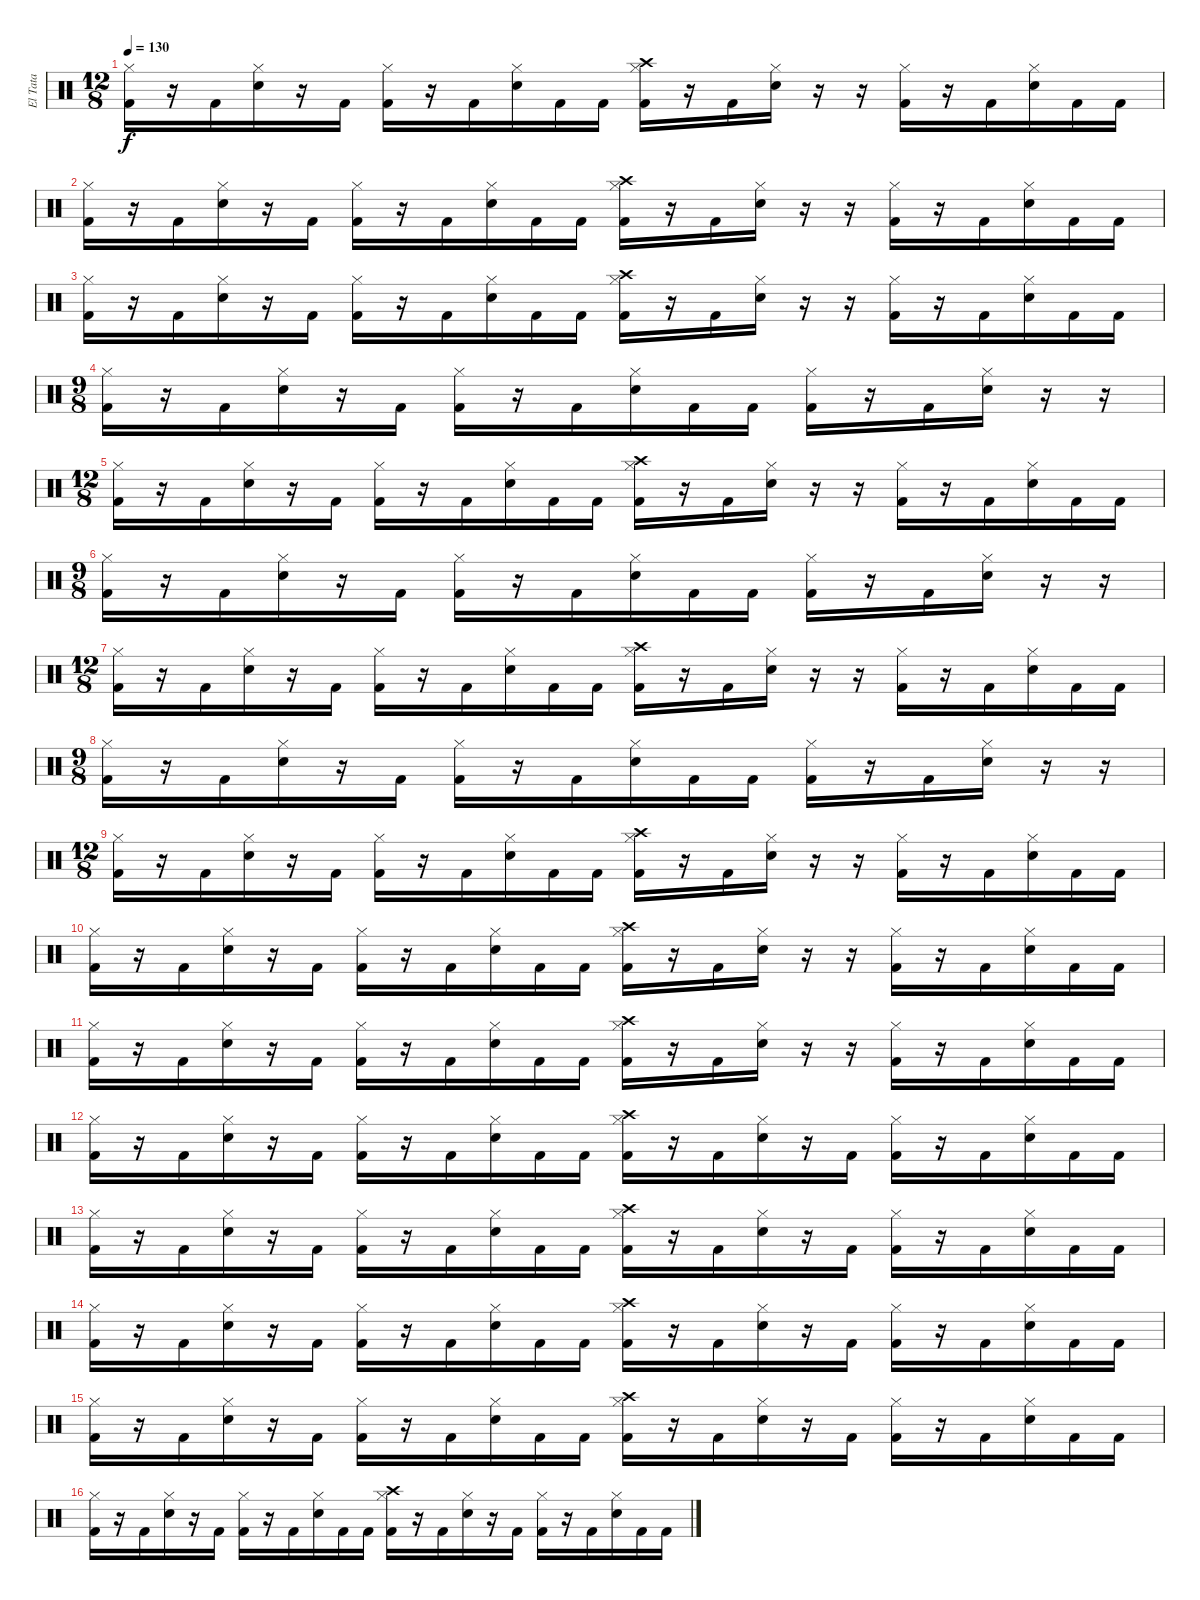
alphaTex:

\track ("El Tata" "El Tata") {instrument percussion}
\staff {score}
\articulation defaults
\ts (12 8)
\tempo 130
\clef neutral
\ks c
("Kick (hit) 2" "Hi-Hat (closed)").16{dy f} r.16 "Kick (hit) 2".16 ("Hi-Hat (closed)" "Electric Snare (hit)").16 r.16 "Kick (hit) 2".16 ("Kick (hit) 2" "Hi-Hat (closed)").16 r.16 "Kick (hit) 2".16 ("Hi-Hat (closed)" "Electric Snare (hit)").16 "Kick (hit) 2".16 "Kick (hit) 2".16 ("Kick (hit) 2" "Hi-Hat (closed)" "Crash high (hit)").16 r.16 "Kick (hit) 2".16 ("Hi-Hat (closed)" "Electric Snare (hit)").16 r.16 r.16 ("Kick (hit) 2" "Hi-Hat (closed)").16 r.16 "Kick (hit) 2".16 ("Hi-Hat (closed)" "Electric Snare (hit)").16 "Kick (hit) 2".16 "Kick (hit) 2".16 |
("Kick (hit) 2" "Hi-Hat (closed)").16 r.16 "Kick (hit) 2".16 ("Hi-Hat (closed)" "Electric Snare (hit)").16 r.16 "Kick (hit) 2".16 ("Kick (hit) 2" "Hi-Hat (closed)").16 r.16 "Kick (hit) 2".16 ("Hi-Hat (closed)" "Electric Snare (hit)").16 "Kick (hit) 2".16 "Kick (hit) 2".16 ("Kick (hit) 2" "Hi-Hat (closed)" "Crash high (hit)").16 r.16 "Kick (hit) 2".16 ("Hi-Hat (closed)" "Electric Snare (hit)").16 r.16 r.16 ("Kick (hit) 2" "Hi-Hat (closed)").16 r.16 "Kick (hit) 2".16 ("Hi-Hat (closed)" "Electric Snare (hit)").16 "Kick (hit) 2".16 "Kick (hit) 2".16 |
("Kick (hit) 2" "Hi-Hat (closed)").16 r.16 "Kick (hit) 2".16 ("Hi-Hat (closed)" "Electric Snare (hit)").16 r.16 "Kick (hit) 2".16 ("Kick (hit) 2" "Hi-Hat (closed)").16 r.16 "Kick (hit) 2".16 ("Hi-Hat (closed)" "Electric Snare (hit)").16 "Kick (hit) 2".16 "Kick (hit) 2".16 ("Kick (hit) 2" "Hi-Hat (closed)" "Crash high (hit)").16 r.16 "Kick (hit) 2".16 ("Hi-Hat (closed)" "Electric Snare (hit)").16 r.16 r.16 ("Kick (hit) 2" "Hi-Hat (closed)").16 r.16 "Kick (hit) 2".16 ("Hi-Hat (closed)" "Electric Snare (hit)").16 "Kick (hit) 2".16 "Kick (hit) 2".16 |
\ts (9 8)
("Hi-Hat (closed)" "Kick (hit) 2").16 r.16 "Kick (hit) 2".16 ("Hi-Hat (closed)" "Electric Snare (hit)").16 r.16 "Kick (hit) 2".16 ("Hi-Hat (closed)" "Kick (hit) 2").16 r.16 "Kick (hit) 2".16 ("Hi-Hat (closed)" "Electric Snare (hit)").16 "Kick (hit) 2".16 "Kick (hit) 2".16 ("Hi-Hat (closed)" "Kick (hit) 2").16 r.16 "Kick (hit) 2".16 ("Hi-Hat (closed)" "Electric Snare (hit)").16 r.16 r.16 |
\ts (12 8)
("Kick (hit) 2" "Hi-Hat (closed)").16 r.16 "Kick (hit) 2".16 ("Hi-Hat (closed)" "Electric Snare (hit)").16 r.16 "Kick (hit) 2".16 ("Kick (hit) 2" "Hi-Hat (closed)").16 r.16 "Kick (hit) 2".16 ("Hi-Hat (closed)" "Electric Snare (hit)").16 "Kick (hit) 2".16 "Kick (hit) 2".16 ("Kick (hit) 2" "Hi-Hat (closed)" "Crash high (hit)").16 r.16 "Kick (hit) 2".16 ("Hi-Hat (closed)" "Electric Snare (hit)").16 r.16 r.16 ("Kick (hit) 2" "Hi-Hat (closed)").16 r.16 "Kick (hit) 2".16 ("Hi-Hat (closed)" "Electric Snare (hit)").16 "Kick (hit) 2".16 "Kick (hit) 2".16 |
\ts (9 8)
("Hi-Hat (closed)" "Kick (hit) 2").16 r.16 "Kick (hit) 2".16 ("Hi-Hat (closed)" "Electric Snare (hit)").16 r.16 "Kick (hit) 2".16 ("Hi-Hat (closed)" "Kick (hit) 2").16 r.16 "Kick (hit) 2".16 ("Hi-Hat (closed)" "Electric Snare (hit)").16 "Kick (hit) 2".16 "Kick (hit) 2".16 ("Hi-Hat (closed)" "Kick (hit) 2").16 r.16 "Kick (hit) 2".16 ("Hi-Hat (closed)" "Electric Snare (hit)").16 r.16 r.16 |
\ts (12 8)
("Kick (hit) 2" "Hi-Hat (closed)").16 r.16 "Kick (hit) 2".16 ("Hi-Hat (closed)" "Electric Snare (hit)").16 r.16 "Kick (hit) 2".16 ("Kick (hit) 2" "Hi-Hat (closed)").16 r.16 "Kick (hit) 2".16 ("Hi-Hat (closed)" "Electric Snare (hit)").16 "Kick (hit) 2".16 "Kick (hit) 2".16 ("Kick (hit) 2" "Hi-Hat (closed)" "Crash high (hit)").16 r.16 "Kick (hit) 2".16 ("Hi-Hat (closed)" "Electric Snare (hit)").16 r.16 r.16 ("Kick (hit) 2" "Hi-Hat (closed)").16 r.16 "Kick (hit) 2".16 ("Hi-Hat (closed)" "Electric Snare (hit)").16 "Kick (hit) 2".16 "Kick (hit) 2".16 |
\ts (9 8)
("Hi-Hat (closed)" "Kick (hit) 2").16 r.16 "Kick (hit) 2".16 ("Hi-Hat (closed)" "Electric Snare (hit)").16 r.16 "Kick (hit) 2".16 ("Hi-Hat (closed)" "Kick (hit) 2").16 r.16 "Kick (hit) 2".16 ("Hi-Hat (closed)" "Electric Snare (hit)").16 "Kick (hit) 2".16 "Kick (hit) 2".16 ("Hi-Hat (closed)" "Kick (hit) 2").16 r.16 "Kick (hit) 2".16 ("Hi-Hat (closed)" "Electric Snare (hit)").16 r.16 r.16 |
\ts (12 8)
("Kick (hit) 2" "Hi-Hat (closed)").16 r.16 "Kick (hit) 2".16 ("Hi-Hat (closed)" "Electric Snare (hit)").16 r.16 "Kick (hit) 2".16 ("Kick (hit) 2" "Hi-Hat (closed)").16 r.16 "Kick (hit) 2".16 ("Hi-Hat (closed)" "Electric Snare (hit)").16 "Kick (hit) 2".16 "Kick (hit) 2".16 ("Kick (hit) 2" "Hi-Hat (closed)" "Crash high (hit)").16 r.16 "Kick (hit) 2".16 ("Hi-Hat (closed)" "Electric Snare (hit)").16 r.16 r.16 ("Kick (hit) 2" "Hi-Hat (closed)").16 r.16 "Kick (hit) 2".16 ("Hi-Hat (closed)" "Electric Snare (hit)").16 "Kick (hit) 2".16 "Kick (hit) 2".16 |
("Kick (hit) 2" "Hi-Hat (closed)").16 r.16 "Kick (hit) 2".16 ("Hi-Hat (closed)" "Electric Snare (hit)").16 r.16 "Kick (hit) 2".16 ("Kick (hit) 2" "Hi-Hat (closed)").16 r.16 "Kick (hit) 2".16 ("Hi-Hat (closed)" "Electric Snare (hit)").16 "Kick (hit) 2".16 "Kick (hit) 2".16 ("Kick (hit) 2" "Hi-Hat (closed)" "Crash high (hit)").16 r.16 "Kick (hit) 2".16 ("Hi-Hat (closed)" "Electric Snare (hit)").16 r.16 r.16 ("Kick (hit) 2" "Hi-Hat (closed)").16 r.16 "Kick (hit) 2".16 ("Hi-Hat (closed)" "Electric Snare (hit)").16 "Kick (hit) 2".16 "Kick (hit) 2".16 |
("Kick (hit) 2" "Hi-Hat (closed)").16 r.16 "Kick (hit) 2".16 ("Hi-Hat (closed)" "Electric Snare (hit)").16 r.16 "Kick (hit) 2".16 ("Kick (hit) 2" "Hi-Hat (closed)").16 r.16 "Kick (hit) 2".16 ("Hi-Hat (closed)" "Electric Snare (hit)").16 "Kick (hit) 2".16 "Kick (hit) 2".16 ("Kick (hit) 2" "Hi-Hat (closed)" "Crash high (hit)").16 r.16 "Kick (hit) 2".16 ("Hi-Hat (closed)" "Electric Snare (hit)").16 r.16 r.16 ("Kick (hit) 2" "Hi-Hat (closed)").16 r.16 "Kick (hit) 2".16 ("Hi-Hat (closed)" "Electric Snare (hit)").16 "Kick (hit) 2".16 "Kick (hit) 2".16 |
("Kick (hit) 2" "Hi-Hat (closed)").16 r.16 "Kick (hit) 2".16 ("Hi-Hat (closed)" "Electric Snare (hit)").16 r.16 "Kick (hit) 2".16 ("Kick (hit) 2" "Hi-Hat (closed)").16 r.16 "Kick (hit) 2".16 ("Hi-Hat (closed)" "Electric Snare (hit)").16 "Kick (hit) 2".16 "Kick (hit) 2".16 ("Kick (hit) 2" "Hi-Hat (closed)" "Crash high (hit)").16 r.16 "Kick (hit) 2".16 ("Hi-Hat (closed)" "Electric Snare (hit)").16 r.16 "Kick (hit) 2".16 ("Kick (hit) 2" "Hi-Hat (closed)").16 r.16 "Kick (hit) 2".16 ("Hi-Hat (closed)" "Electric Snare (hit)").16 "Kick (hit) 2".16 "Kick (hit) 2".16 |
("Kick (hit) 2" "Hi-Hat (closed)").16 r.16 "Kick (hit) 2".16 ("Hi-Hat (closed)" "Electric Snare (hit)").16 r.16 "Kick (hit) 2".16 ("Kick (hit) 2" "Hi-Hat (closed)").16 r.16 "Kick (hit) 2".16 ("Hi-Hat (closed)" "Electric Snare (hit)").16 "Kick (hit) 2".16 "Kick (hit) 2".16 ("Kick (hit) 2" "Hi-Hat (closed)" "Crash high (hit)").16 r.16 "Kick (hit) 2".16 ("Hi-Hat (closed)" "Electric Snare (hit)").16 r.16 "Kick (hit) 2".16 ("Kick (hit) 2" "Hi-Hat (closed)").16 r.16 "Kick (hit) 2".16 ("Hi-Hat (closed)" "Electric Snare (hit)").16 "Kick (hit) 2".16 "Kick (hit) 2".16 |
("Kick (hit) 2" "Hi-Hat (closed)").16 r.16 "Kick (hit) 2".16 ("Hi-Hat (closed)" "Electric Snare (hit)").16 r.16 "Kick (hit) 2".16 ("Kick (hit) 2" "Hi-Hat (closed)").16 r.16 "Kick (hit) 2".16 ("Hi-Hat (closed)" "Electric Snare (hit)").16 "Kick (hit) 2".16 "Kick (hit) 2".16 ("Kick (hit) 2" "Hi-Hat (closed)" "Crash high (hit)").16 r.16 "Kick (hit) 2".16 ("Hi-Hat (closed)" "Electric Snare (hit)").16 r.16 "Kick (hit) 2".16 ("Kick (hit) 2" "Hi-Hat (closed)").16 r.16 "Kick (hit) 2".16 ("Hi-Hat (closed)" "Electric Snare (hit)").16 "Kick (hit) 2".16 "Kick (hit) 2".16 |
("Kick (hit) 2" "Hi-Hat (closed)").16 r.16 "Kick (hit) 2".16 ("Hi-Hat (closed)" "Electric Snare (hit)").16 r.16 "Kick (hit) 2".16 ("Kick (hit) 2" "Hi-Hat (closed)").16 r.16 "Kick (hit) 2".16 ("Hi-Hat (closed)" "Electric Snare (hit)").16 "Kick (hit) 2".16 "Kick (hit) 2".16 ("Kick (hit) 2" "Hi-Hat (closed)" "Crash high (hit)").16 r.16 "Kick (hit) 2".16 ("Hi-Hat (closed)" "Electric Snare (hit)").16 r.16 "Kick (hit) 2".16 ("Kick (hit) 2" "Hi-Hat (closed)").16 r.16 "Kick (hit) 2".16 ("Hi-Hat (closed)" "Electric Snare (hit)").16 "Kick (hit) 2".16 "Kick (hit) 2".16 |
("Kick (hit) 2" "Hi-Hat (closed)").16 r.16 "Kick (hit) 2".16 ("Hi-Hat (closed)" "Electric Snare (hit)").16 r.16 "Kick (hit) 2".16 ("Kick (hit) 2" "Hi-Hat (closed)").16 r.16 "Kick (hit) 2".16 ("Hi-Hat (closed)" "Electric Snare (hit)").16 "Kick (hit) 2".16 "Kick (hit) 2".16 ("Kick (hit) 2" "Hi-Hat (closed)" "Crash high (hit)").16 r.16 "Kick (hit) 2".16 ("Hi-Hat (closed)" "Electric Snare (hit)").16 r.16 "Kick (hit) 2".16 ("Kick (hit) 2" "Hi-Hat (closed)").16 r.16 "Kick (hit) 2".16 ("Hi-Hat (closed)" "Electric Snare (hit)").16 "Kick (hit) 2".16 "Kick (hit) 2".16
